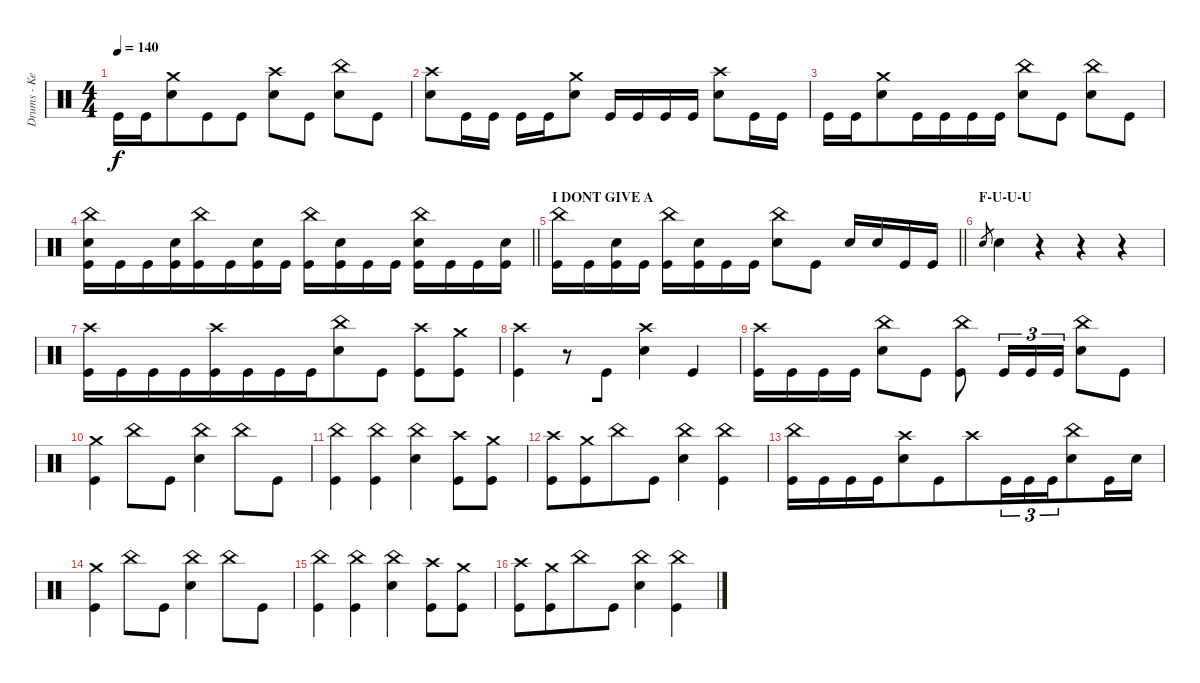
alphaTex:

\track ("Drums - Kevin Boutot" "Drums - Ke") {instrument percussion}
\staff {score}
\articulation defaults
\ts (4 4)
\tempo 140
\clef neutral
\ks c "Kick (hit)".16{dy f} "Kick (hit)".16
("Crash medium (hit)" "Electric Snare (hit)").8{beam merge} "Kick (hit)".8 "Kick (hit)".8 ("Crash high (hit)" "Electric Snare (hit)").8 "Kick (hit)".8 ("China (hit)" "Electric Snare (hit)").8 "Kick (hit)".8 |
("Crash high (hit)" "Electric Snare (hit)").8 "Kick (hit)".16 "Kick (hit)".16 "Kick (hit)".16{beam merge} "Kick (hit)".16{beam merge} ("Crash medium (hit)" "Electric Snare (hit)").8 "Kick (hit)".16{beam merge} "Kick (hit)".16 "Kick (hit)".16 "Kick (hit)".16 ("Crash high (hit)" "Electric Snare (hit)").8 "Kick (hit)".16 "Kick (hit)".16 |
"Kick (hit)".16 "Kick (hit)".16{beam merge} ("Crash medium (hit)" "Electric Snare (hit)").8{beam merge} "Kick (hit)".16{beam merge} "Kick (hit)".16 "Kick (hit)".16 "Kick (hit)".16 ("China (hit)" "Electric Snare (hit)").8 "Kick (hit)".8 ("China (hit)" "Electric Snare (hit)").8{beam merge} "Kick (hit)".8 |
\barLineRight lightlight
("China (hit)" "Electric Snare (hit)" "Kick (hit)").16 "Kick (hit)".16 "Kick (hit)".16{beam merge} ("Electric Snare (hit)" "Kick (hit)").16{beam merge} ("China (hit)" "Kick (hit)").16{beam merge} "Kick (hit)".16 ("Electric Snare (hit)" "Kick (hit)").16{beam merge} "Kick (hit)".16 ("China (hit)" "Kick (hit)").16 ("Electric Snare (hit)" "Kick (hit)").16 "Kick (hit)".16{beam merge} "Kick (hit)".16 ("China (hit)" "Electric Snare (hit)" "Kick (hit)").16 "Kick (hit)".16 "Kick (hit)".16{beam merge} ("Electric Snare (hit)" "Kick (hit)").16 |
\section ("" "I DONT GIVE A ")
\barLineRight lightlight
("China (hit)" "Kick (hit)").16 "Kick (hit)".16 ("Electric Snare (hit)" "Kick (hit)").16 "Kick (hit)".16 ("China (hit)" "Kick (hit)").16 ("Electric Snare (hit)" "Kick (hit)").16 "Kick (hit)".16 "Kick (hit)".16 ("China (hit)" "Electric Snare (hit)").8{beam merge} "Kick (hit)".8 "Electric Snare (hit)".16{beam merge} "Electric Snare (hit)".16 "Kick (hit)".16 "Kick (hit)".16 |
\section ("" "F-U-U-U")
"Snare (hit)".8{gr beam merge} "Electric Snare (hit)".4 r.4 r.4{beam merge} r.4 |
("Crash high (hit)" "Kick (hit)").16 "Kick (hit)".16 "Kick (hit)".16{beam merge} "Kick (hit)".16{beam merge} ("Crash high (hit)" "Kick (hit)").16{beam merge} "Kick (hit)".16{beam merge} "Kick (hit)".16 "Kick (hit)".16{beam merge} ("China (hit)" "Electric Snare (hit)").8 "Kick (hit)".8 ("Crash high (hit)" "Kick (hit)").8 ("Crash medium (hit)" "Kick (hit)").8 |
("Crash high (hit)" "Kick (hit)").4{beam merge} r.8 "Kick (hit)".8 ("Crash high (hit)" "Electric Snare (hit)").4 "Kick (hit)".4 |
("Crash high (hit)" "Kick (hit)").16 "Kick (hit)".16{beam merge} "Kick (hit)".16{beam merge} "Kick (hit)".16 ("China (hit)" "Electric Snare (hit)").8 "Kick (hit)".8 ("China (hit)" "Kick (hit)").8 "Kick (hit)".16{tu (3 2)} "Kick (hit)".16{tu (3 2)} "Kick (hit)".16{tu (3 2)} ("China (hit)" "Electric Snare (hit)").8 "Kick (hit)".8 |
("Crash medium (hit)" "Kick (hit)").4 "China (hit)".8{beam merge} "Kick (hit)".8{beam merge} ("China (hit)" "Electric Snare (hit)").4{beam merge} "China (hit)".8 "Kick (hit)".8 |
("China (hit)" "Kick (hit)").4{beam merge} ("China (hit)" "Kick (hit)").4{beam merge} ("China (hit)" "Electric Snare (hit)").4{beam merge} ("Crash high (hit)" "Kick (hit)").8{beam merge} ("Crash medium (hit)" "Kick (hit)").8 |
("Crash high (hit)" "Kick (hit)").8{beam merge} ("Crash medium (hit)" "Kick (hit)").8{beam merge} "China (hit)".8{beam merge} "Kick (hit)".8{beam merge} ("China (hit)" "Electric Snare (hit)").4 ("China (hit)" "Kick (hit)").4 |
("China (hit)" "Kick (hit)").16 "Kick (hit)".16 "Kick (hit)".16 "Kick (hit)".16{beam merge} ("Crash high (hit)" "Electric Snare (hit)").8{beam merge} "Kick (hit)".8{beam merge} "Crash high (hit)".8{beam merge} "Kick (hit)".16{tu (3 2)} "Kick (hit)".16{tu (3 2)} "Kick (hit)".16{tu (3 2) beam merge} ("China (hit)" "Electric Snare (hit)").8 "Kick (hit)".16 "Electric Snare (hit)".16 |
("Crash medium (hit)" "Kick (hit)").4 "China (hit)".8{beam merge} "Kick (hit)".8{beam merge} ("China (hit)" "Electric Snare (hit)").4{beam merge} "China (hit)".8 "Kick (hit)".8 |
("China (hit)" "Kick (hit)").4{beam merge} ("China (hit)" "Kick (hit)").4{beam merge} ("China (hit)" "Electric Snare (hit)").4{beam merge} ("Crash high (hit)" "Kick (hit)").8{beam merge} ("Crash medium (hit)" "Kick (hit)").8 |
("Crash high (hit)" "Kick (hit)").8{beam merge} ("Crash medium (hit)" "Kick (hit)").8{beam merge} "China (hit)".8{beam merge} "Kick (hit)".8{beam merge} ("China (hit)" "Electric Snare (hit)").4 ("China (hit)" "Kick (hit)").4
